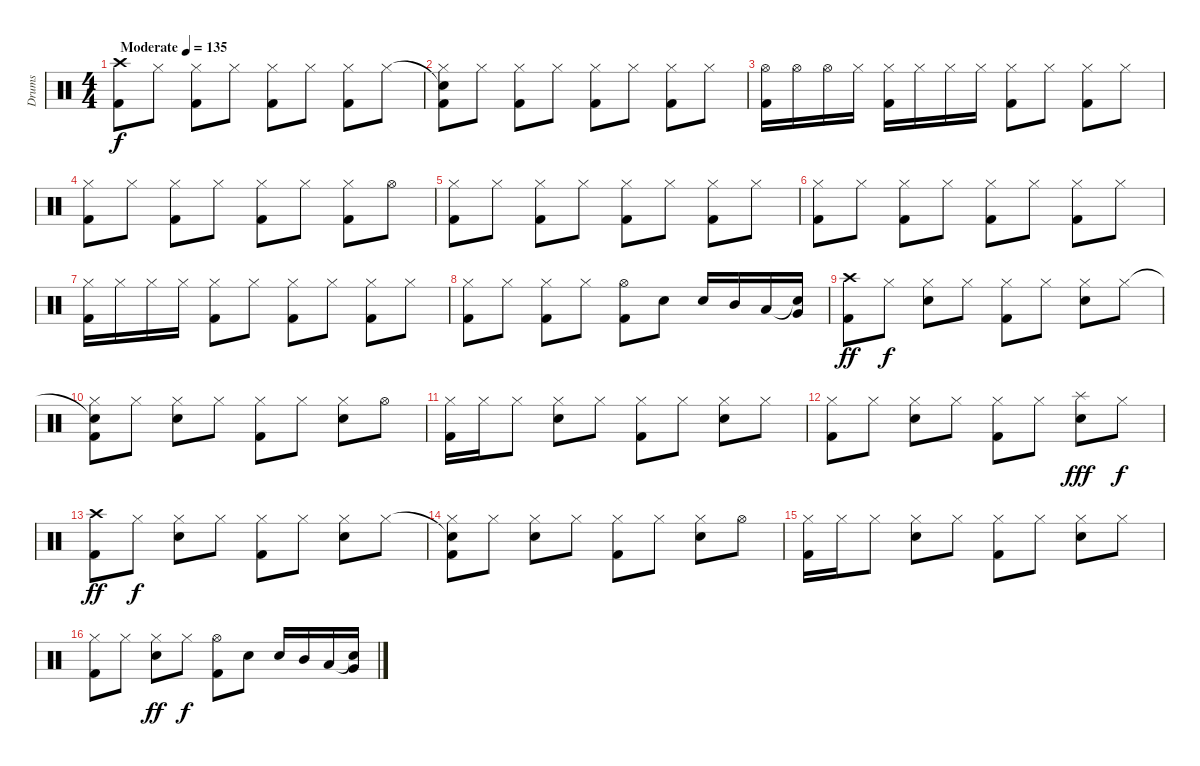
\track ("Drums" "Drums") {instrument percussion}
\staff {score}
\articulation defaults
\ts (4 4)
\tempo (135 "Moderate")
\clef neutral
\ks c
("Crash high (hit)" "Kick (hit) 2").8{dy f} "Hi-Hat (closed)".8 ("Hi-Hat (closed)" "Kick (hit) 2").8 "Hi-Hat (closed)".8 ("Hi-Hat (closed)" "Kick (hit) 2").8 "Hi-Hat (closed)".8 ("Hi-Hat (closed)" "Kick (hit) 2").8 "Hi-Hat (closed)".8 |
("Snare (hit)"{t} "Hi-Hat (closed)" "Kick (hit) 2").8 "Hi-Hat (closed)".8 ("Hi-Hat (closed)" "Kick (hit) 2").8 "Hi-Hat (closed)".8 ("Hi-Hat (closed)" "Kick (hit) 2").8 "Hi-Hat (closed)".8 ("Hi-Hat (closed)" "Kick (hit) 2").8 "Hi-Hat (closed)".8 |
("Hi-Hat (open)" "Kick (hit) 2").16 "Hi-Hat (open)".16 "Hi-Hat (open)".16 "Hi-Hat (closed)".16 ("Hi-Hat (closed)" "Kick (hit) 2").16 "Hi-Hat (closed)".16 "Hi-Hat (closed)".16 "Hi-Hat (closed)".16 ("Hi-Hat (closed)" "Kick (hit) 2").8 "Hi-Hat (closed)".8 ("Hi-Hat (closed)" "Kick (hit) 2").8 "Hi-Hat (closed)".8 |
("Hi-Hat (closed)" "Kick (hit) 2").8 "Hi-Hat (closed)".8 ("Hi-Hat (closed)" "Kick (hit) 2").8 "Hi-Hat (closed)".8 ("Hi-Hat (closed)" "Kick (hit) 2").8 "Hi-Hat (closed)".8 ("Hi-Hat (closed)" "Kick (hit) 2").8 "Hi-Hat (open)".8 |
("Hi-Hat (closed)" "Kick (hit) 2").8 "Hi-Hat (closed)".8 ("Hi-Hat (closed)" "Kick (hit) 2").8 "Hi-Hat (closed)".8 ("Hi-Hat (closed)" "Kick (hit) 2").8 "Hi-Hat (closed)".8 ("Hi-Hat (closed)" "Kick (hit) 2").8 "Hi-Hat (closed)".8 |
("Hi-Hat (closed)" "Kick (hit) 2").8 "Hi-Hat (closed)".8 ("Hi-Hat (closed)" "Kick (hit) 2").8 "Hi-Hat (closed)".8 ("Hi-Hat (closed)" "Kick (hit) 2").8 "Hi-Hat (closed)".8 ("Hi-Hat (closed)" "Kick (hit) 2").8 "Hi-Hat (closed)".8 |
("Hi-Hat (closed)" "Kick (hit) 2").16 "Hi-Hat (closed)".16 "Hi-Hat (closed)".16 "Hi-Hat (closed)".16 ("Hi-Hat (closed)" "Kick (hit) 2").8 "Hi-Hat (closed)".8 ("Hi-Hat (closed)" "Kick (hit) 2").8 "Hi-Hat (closed)".8 ("Hi-Hat (closed)" "Kick (hit) 2").8 "Hi-Hat (closed)".8 |
("Hi-Hat (closed)" "Kick (hit) 2").8 "Hi-Hat (closed)".8 ("Hi-Hat (closed)" "Kick (hit) 2").8 "Hi-Hat (closed)".8 ("Hi-Hat (open)" "Kick (hit) 2").8 "Snare (hit) 2".8 "Snare (hit) 2".16 "Mid Tom (hit)".16 "Low Tom (hit)".16 ("Snare (hit)"{t} "Very Low Tom (hit)").16 |
("Crash high (hit)" "Kick (hit) 2").8{dy ff} "Hi-Hat (closed)".8{dy f} ("Hi-Hat (closed)" "Snare (hit) 2").8 "Hi-Hat (closed)".8 ("Hi-Hat (closed)" "Kick (hit) 2").8 "Hi-Hat (closed)".8 ("Hi-Hat (closed)" "Snare (hit) 2").8 "Hi-Hat (closed)".8 |
("Snare (hit)"{t} "Hi-Hat (closed)" "Kick (hit) 2").8 "Hi-Hat (closed)".8 ("Hi-Hat (closed)" "Snare (hit) 2").8 "Hi-Hat (closed)".8 ("Hi-Hat (closed)" "Kick (hit) 2").8 "Hi-Hat (closed)".8 ("Hi-Hat (closed)" "Snare (hit) 2").8 "Hi-Hat (open)".8 |
("Hi-Hat (closed)" "Kick (hit) 2").16 "Hi-Hat (closed)".16 "Hi-Hat (closed)".8 ("Hi-Hat (closed)" "Snare (hit) 2").8 "Hi-Hat (closed)".8 ("Hi-Hat (closed)" "Kick (hit) 2").8 "Hi-Hat (closed)".8 ("Hi-Hat (closed)" "Snare (hit) 2").8 "Hi-Hat (closed)".8 |
("Hi-Hat (closed)" "Kick (hit) 2").8 "Hi-Hat (closed)".8 ("Hi-Hat (closed)" "Snare (hit) 2").8 "Hi-Hat (closed)".8 ("Hi-Hat (closed)" "Kick (hit) 2").8 "Hi-Hat (closed)".8 ("Splash (hit)" "Snare (hit) 2").8{dy fff} "Hi-Hat (closed)".8{dy f} |
("Crash high (hit)" "Kick (hit) 2").8{dy ff} "Hi-Hat (closed)".8{dy f} ("Hi-Hat (closed)" "Snare (hit) 2").8 "Hi-Hat (closed)".8 ("Hi-Hat (closed)" "Kick (hit) 2").8 "Hi-Hat (closed)".8 ("Hi-Hat (closed)" "Snare (hit) 2").8 "Hi-Hat (closed)".8 |
("Snare (hit)"{t} "Hi-Hat (closed)" "Kick (hit) 2").8 "Hi-Hat (closed)".8 ("Hi-Hat (closed)" "Snare (hit) 2").8 "Hi-Hat (closed)".8 ("Hi-Hat (closed)" "Kick (hit) 2").8 "Hi-Hat (closed)".8 ("Hi-Hat (closed)" "Snare (hit) 2").8 "Hi-Hat (open)".8 |
("Hi-Hat (closed)" "Kick (hit) 2").16 "Hi-Hat (closed)".16 "Hi-Hat (closed)".8 ("Hi-Hat (closed)" "Snare (hit) 2").8 "Hi-Hat (closed)".8 ("Hi-Hat (closed)" "Kick (hit) 2").8 "Hi-Hat (closed)".8 ("Hi-Hat (closed)" "Snare (hit) 2").8 "Hi-Hat (closed)".8 |
("Hi-Hat (closed)" "Kick (hit) 2").8 "Hi-Hat (closed)".8 ("Hi-Hat (closed)" "Snare (hit) 2").8{dy ff} "Hi-Hat (closed)".8{dy f} ("Hi-Hat (open)" "Kick (hit) 2").8 "Snare (hit) 2".8 "Snare (hit) 2".16 "Mid Tom (hit)".16 "Low Tom (hit)".16 ("Snare (hit)"{t} "Very Low Tom (hit)").16
